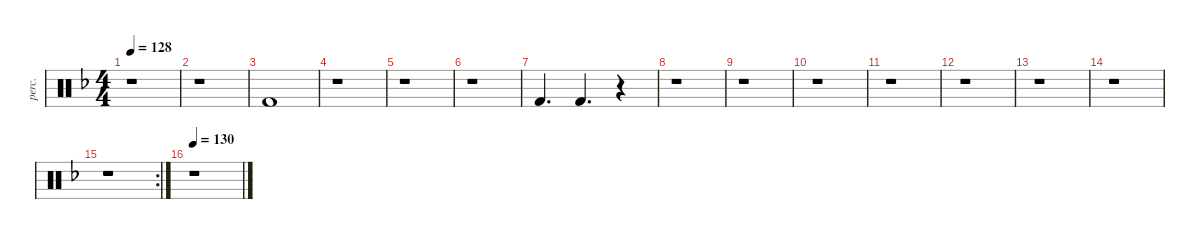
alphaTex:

\defaultSystemsLayout 2
\hideDynamics
\bracketExtendMode groupsimilarinstruments
\otherSystemsTrackNameOrientation horizontal
\track ("Guitar Percussion" "perc.") {instrument percussion}
\staff {score}
\articulation defaults
\ts (4 4)
\scale
1.04549
\tempo 128
\accidentals auto
\clef neutral
\ottava regular
\simile none
\ks dminor
r.1{dy mf} |
\scale
0.954505 r.1 |
\scale
1.04549 "Kick (hit) 2"{acc forcenatural}.1 |
\scale
0.954505 r.1 |
\scale
1.04549 r.1 |
\scale
0.954505 r.1 |
\scale
1.04549 "Kick (hit) 2"{acc forcenatural}.4{d} "Kick (hit) 2"{acc forcenatural}.4{d} r.4 |
\scale
0.954505 r.1 |
\scale
1.04549 r.1 |
\scale
0.954505 r.1 |
\scale
1.04549 r.1 |
\scale
0.954505 r.1 |
\scale
1.04549 r.1 |
\scale
0.954505 r.1 |
\rc 2
\scale
1.05705 r.1 |
\scale
0.942947
\tempo 130
r.1
